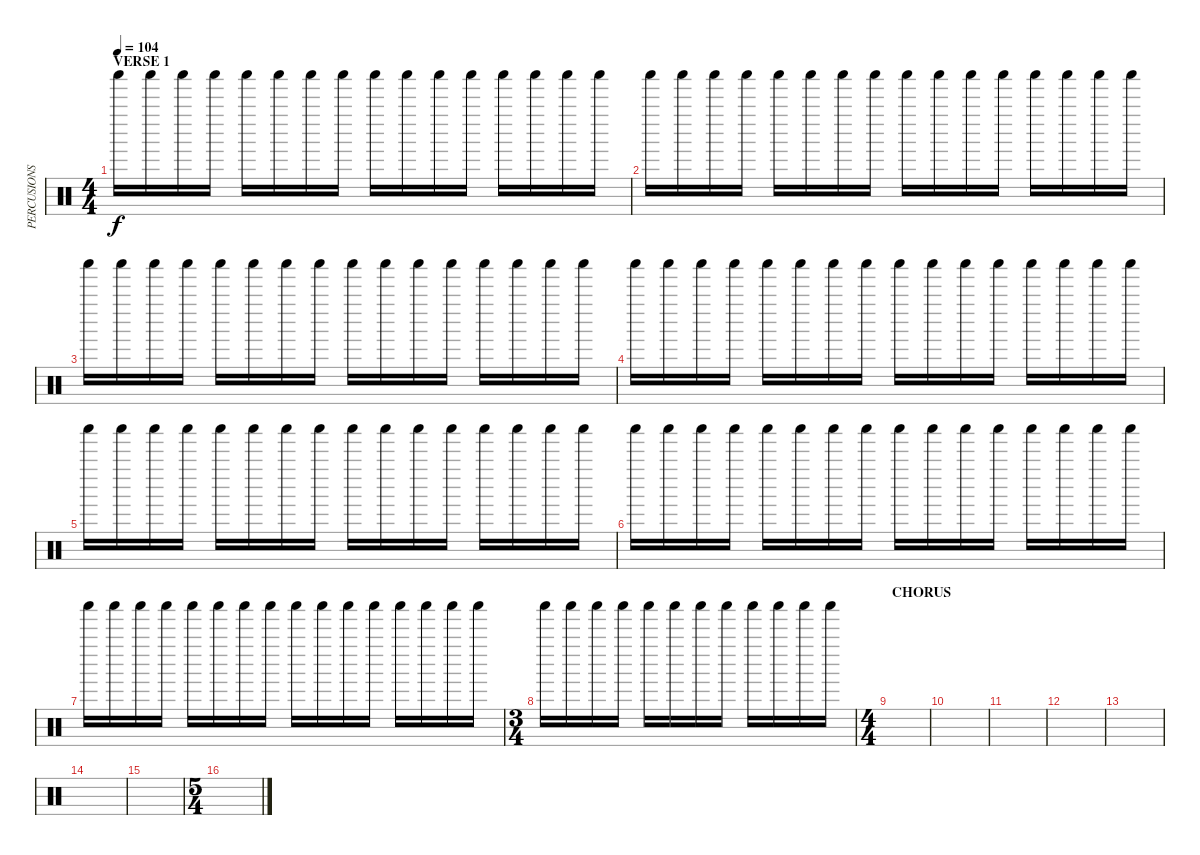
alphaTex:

\track ("PERCUSIONS" "PERCUSIONS") {instrument percussion}
\staff {score}
\articulation defaults
\ts (4 4)
\section ("" "VERSE 1")
\tempo 104
\clef neutral
\ks c "Shaker (hit)".16{dy f} "Shaker (hit)".16 "Shaker (hit)".16 "Shaker (hit)".16 "Shaker (hit)".16 "Shaker (hit)".16 "Shaker (hit)".16 "Shaker (hit)".16 "Shaker (hit)".16 "Shaker (hit)".16 "Shaker (hit)".16 "Shaker (hit)".16 "Shaker (hit)".16 "Shaker (hit)".16 "Shaker (hit)".16 "Shaker (hit)".16
|
"Shaker (hit)".16 "Shaker (hit)".16 "Shaker (hit)".16 "Shaker (hit)".16 "Shaker (hit)".16 "Shaker (hit)".16 "Shaker (hit)".16 "Shaker (hit)".16 "Shaker (hit)".16 "Shaker (hit)".16 "Shaker (hit)".16 "Shaker (hit)".16 "Shaker (hit)".16 "Shaker (hit)".16 "Shaker (hit)".16 "Shaker (hit)".16 |
"Shaker (hit)".16 "Shaker (hit)".16 "Shaker (hit)".16 "Shaker (hit)".16 "Shaker (hit)".16 "Shaker (hit)".16 "Shaker (hit)".16 "Shaker (hit)".16 "Shaker (hit)".16 "Shaker (hit)".16 "Shaker (hit)".16 "Shaker (hit)".16 "Shaker (hit)".16 "Shaker (hit)".16 "Shaker (hit)".16 "Shaker (hit)".16 |
"Shaker (hit)".16 "Shaker (hit)".16 "Shaker (hit)".16 "Shaker (hit)".16 "Shaker (hit)".16 "Shaker (hit)".16 "Shaker (hit)".16 "Shaker (hit)".16 "Shaker (hit)".16 "Shaker (hit)".16 "Shaker (hit)".16 "Shaker (hit)".16 "Shaker (hit)".16 "Shaker (hit)".16 "Shaker (hit)".16 "Shaker (hit)".16 |
"Shaker (hit)".16 "Shaker (hit)".16 "Shaker (hit)".16 "Shaker (hit)".16 "Shaker (hit)".16 "Shaker (hit)".16 "Shaker (hit)".16 "Shaker (hit)".16 "Shaker (hit)".16 "Shaker (hit)".16 "Shaker (hit)".16 "Shaker (hit)".16 "Shaker (hit)".16 "Shaker (hit)".16 "Shaker (hit)".16 "Shaker (hit)".16 |
"Shaker (hit)".16 "Shaker (hit)".16 "Shaker (hit)".16 "Shaker (hit)".16 "Shaker (hit)".16 "Shaker (hit)".16 "Shaker (hit)".16 "Shaker (hit)".16 "Shaker (hit)".16 "Shaker (hit)".16 "Shaker (hit)".16 "Shaker (hit)".16 "Shaker (hit)".16 "Shaker (hit)".16 "Shaker (hit)".16 "Shaker (hit)".16 |
"Shaker (hit)".16 "Shaker (hit)".16 "Shaker (hit)".16 "Shaker (hit)".16 "Shaker (hit)".16 "Shaker (hit)".16 "Shaker (hit)".16 "Shaker (hit)".16 "Shaker (hit)".16 "Shaker (hit)".16 "Shaker (hit)".16 "Shaker (hit)".16 "Shaker (hit)".16 "Shaker (hit)".16 "Shaker (hit)".16 "Shaker (hit)".16 |
\ts (3 4)
"Shaker (hit)".16 "Shaker (hit)".16 "Shaker (hit)".16 "Shaker (hit)".16 "Shaker (hit)".16 "Shaker (hit)".16 "Shaker (hit)".16 "Shaker (hit)".16 "Shaker (hit)".16 "Shaker (hit)".16 "Shaker (hit)".16 "Shaker (hit)".16 |
\ts (4 4)
\section ("" "CHORUS")
|
|
|
|
|
|
|
\ts (5 4)
